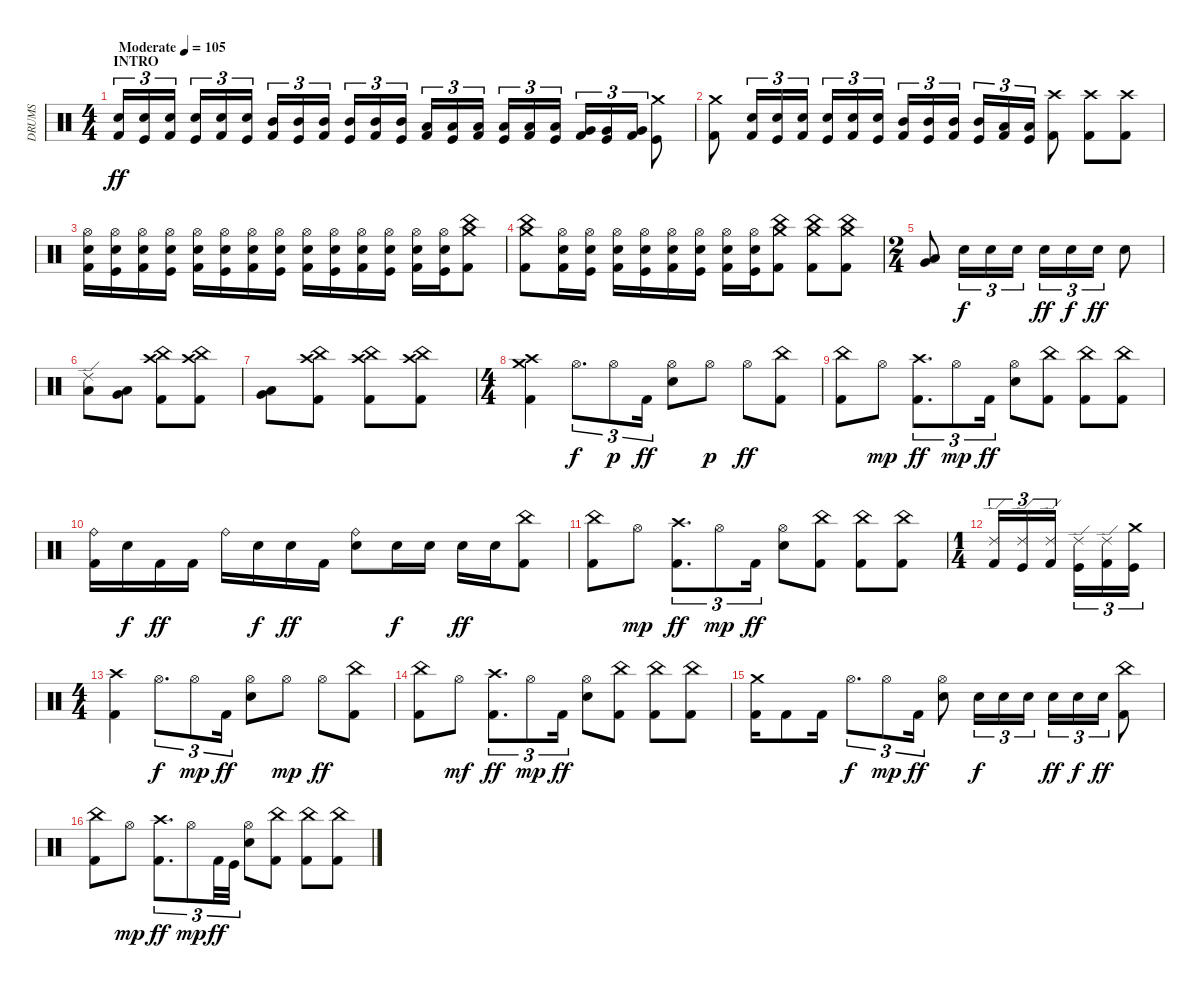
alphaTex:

\track ("DRUMS" "DRUMS") {instrument percussion}
\staff {score}
\articulation defaults
\ts (4 4)
\section ("" "INTRO")
\tempo (105 "Moderate")
\clef neutral
\ks c
("Electric Snare (hit)" "Kick (hit) 2").16{tu (3 2) dy ff} ("Snare (hit) 2" "Kick (hit)").16{tu (3 2)} ("Electric Snare (hit)" "Kick (hit) 2").16{tu (3 2) beam splitsecondary} ("Snare (hit) 2" "Kick (hit)").16{tu (3 2)} ("Electric Snare (hit)" "Kick (hit) 2").16{tu (3 2)} ("Snare (hit) 2" "Kick (hit)").16{tu (3 2)} ("Mid Tom (hit)" "Kick (hit) 2").16{tu (3 2)} ("Mid Tom (hit)" "Kick (hit)").16{tu (3 2)} ("Mid Tom (hit)" "Kick (hit) 2").16{tu (3 2) beam splitsecondary} ("Mid Tom (hit)" "Kick (hit)").16{tu (3 2)} ("Mid Tom (hit)" "Kick (hit) 2").16{tu (3 2)} ("Mid Tom (hit)" "Kick (hit)").16{tu (3 2)} ("Low Tom (hit)" "Kick (hit) 2").16{tu (3 2)} ("Low Tom (hit)" "Kick (hit)").16{tu (3 2)} ("Low Tom (hit)" "Kick (hit) 2").16{tu (3 2) beam splitsecondary} ("Low Tom (hit)" "Kick (hit)").16{tu (3 2)} ("Low Tom (hit)" "Kick (hit) 2").16{tu (3 2)} ("Low Tom (hit)" "Kick (hit)").16{tu (3 2)} ("Very Low Tom (hit)" "Kick (hit) 2").16{tu (3 2)} ("Very Low Tom (hit)" "Kick (hit)").16{tu (3 2)} ("Very Low Tom (hit)" "Kick (hit) 2").16{tu (3 2)} ("Crash medium (hit)" "Kick (hit)").8 |
("Crash medium (hit)" "Kick (hit) 2").8 ("Electric Snare (hit)" "Kick (hit) 2").16{tu (3 2)} ("Snare (hit) 2" "Kick (hit)").16{tu (3 2)} ("Electric Snare (hit)" "Kick (hit) 2").16{tu (3 2)} ("Snare (hit) 2" "Kick (hit)").16{tu (3 2)} ("Electric Snare (hit)" "Kick (hit) 2").16{tu (3 2)} ("Snare (hit) 2" "Kick (hit)").16{tu (3 2) beam splitsecondary} ("Mid Tom (hit)" "Kick (hit) 2").16{tu (3 2)} ("Mid Tom (hit)" "Kick (hit)").16{tu (3 2)} ("Mid Tom (hit)" "Kick (hit) 2").16{tu (3 2)} ("Mid Tom (hit)" "Kick (hit)").16{tu (3 2)} ("Low Tom (hit)" "Kick (hit) 2").16{tu (3 2)} ("Low Tom (hit)" "Kick (hit)").16{tu (3 2)} ("Crash high (hit)" "Kick (hit) 2").8 ("Crash high (hit)" "Kick (hit) 2").8 ("Crash high (hit)" "Kick (hit) 2").8 |
("Hi-Hat (open)" "Snare (hit) 2" "Kick (hit) 2").16 ("Hi-Hat (open)" "Snare (hit) 2" "Kick (hit)").16 ("Hi-Hat (open)" "Snare (hit) 2" "Kick (hit) 2").16 ("Hi-Hat (open)" "Snare (hit) 2" "Kick (hit)").16 ("Hi-Hat (open)" "Snare (hit) 2" "Kick (hit) 2").16 ("Hi-Hat (open)" "Snare (hit) 2" "Kick (hit)").16 ("Hi-Hat (open)" "Snare (hit) 2" "Kick (hit) 2").16 ("Hi-Hat (open)" "Snare (hit) 2" "Kick (hit)").16 ("Hi-Hat (open)" "Snare (hit) 2" "Kick (hit) 2").16 ("Hi-Hat (open)" "Snare (hit) 2" "Kick (hit)").16 ("Hi-Hat (open)" "Snare (hit) 2" "Kick (hit) 2").16 ("Hi-Hat (open)" "Snare (hit) 2" "Kick (hit)").16 ("Hi-Hat (open)" "Snare (hit) 2" "Kick (hit) 2").16 ("Hi-Hat (open)" "Snare (hit) 2" "Kick (hit)").16 ("China (hit)" "Crash medium (hit)" "Kick (hit) 2").8 |
("China (hit)" "Crash medium (hit)" "Kick (hit) 2").8 ("Hi-Hat (open)" "Snare (hit) 2" "Kick (hit) 2").16 ("Hi-Hat (open)" "Snare (hit) 2" "Kick (hit)").16 ("Hi-Hat (open)" "Snare (hit) 2" "Kick (hit) 2").16 ("Hi-Hat (open)" "Snare (hit) 2" "Kick (hit)").16 ("Hi-Hat (open)" "Snare (hit) 2" "Kick (hit) 2").16 ("Hi-Hat (open)" "Snare (hit) 2" "Kick (hit)").16 ("Hi-Hat (open)" "Snare (hit) 2" "Kick (hit) 2").16 ("Hi-Hat (open)" "Snare (hit) 2" "Kick (hit)").16 ("China (hit)" "Crash medium (hit)" "Kick (hit) 2").8 ("China (hit)" "Crash medium (hit)" "Kick (hit) 2").8 ("China (hit)" "Crash medium (hit)" "Kick (hit) 2").8 |
\ts (2 4)
("Very Low Tom (hit)" "Low Floor Tom (hit)").8 "Electric Snare (hit)".16{tu (3 2) dy f} "Snare (hit) 2".16{tu (3 2)} "Electric Snare (hit)".16{tu (3 2)} "Snare (hit) 2".16{tu (3 2) dy ff} "Electric Snare (hit)".16{tu (3 2) dy f} "Snare (hit) 2".16{tu (3 2) dy ff} "Electric Snare (hit)".8 |
("Ride (edge) 2" "Low Tom (hit)").8 ("Low Tom (hit)" "Very Low Tom (hit)").8 ("China (hit)" "Crash high (hit)" "Kick (hit) 2").8 ("China (hit)" "Crash high (hit)" "Kick (hit) 2").8 |
("Low Tom (hit)" "Very Low Tom (hit)").8 ("China (hit)" "Crash high (hit)" "Kick (hit) 2").8 ("China (hit)" "Crash high (hit)" "Kick (hit) 2").8 ("China (hit)" "Crash high (hit)" "Kick (hit) 2").8 |
\ts (4 4)
("Crash high (hit)" "Crash medium (hit)" "Kick (hit) 2").4 "Hi-Hat (open)".8{d tu (3 2) dy f} "Hi-Hat (open)".8{tu (3 2) dy p} "Kick (hit) 2".16{tu (3 2) dy ff} ("Hi-Hat (open)" "Snare (hit) 2").8 "Hi-Hat (open)".8{dy p} "Hi-Hat (open)".8{dy ff} ("China (hit)" "Kick (hit) 2").8 |
("China (hit)" "Kick (hit) 2").8 "Hi-Hat (open)".8{dy mp} ("Crash high (hit)" "Kick (hit) 2").8{d tu (3 2) dy ff} "Hi-Hat (open)".8{tu (3 2) dy mp} "Kick (hit) 2".16{tu (3 2) dy ff} ("Hi-Hat (open)" "Snare (hit) 2").8 ("China (hit)" "Kick (hit) 2").8 ("China (hit)" "Kick (hit) 2").8 ("China (hit)" "Kick (hit) 2").8 |
("Ride (bell)" "Kick (hit) 2").16 "Snare (hit) 2".16{dy f} "Kick (hit) 2".16{dy ff} "Kick (hit) 2".16 "Ride (bell)".16 "Snare (hit) 2".16{dy f} "Electric Snare (hit)".16{dy ff} "Kick (hit) 2".16 ("Ride (bell)" "Snare (hit) 2").8 "Electric Snare (hit)".16{dy f} "Snare (hit) 2".16 "Electric Snare (hit)".16{dy ff} "Snare (hit) 2".16 ("China (hit)" "Kick (hit) 2").8 |
("China (hit)" "Kick (hit) 2").8 "Hi-Hat (open)".8{dy mp} ("Crash high (hit)" "Kick (hit) 2").8{d tu (3 2) dy ff} "Hi-Hat (open)".8{tu (3 2) dy mp} "Kick (hit) 2".16{tu (3 2) dy ff} ("Hi-Hat (open)" "Snare (hit) 2").8 ("China (hit)" "Kick (hit) 2").8 ("China (hit)" "Kick (hit) 2").8 ("China (hit)" "Kick (hit) 2").8 |
\ts (1 4)
("Ride (edge) 2" "Kick (hit) 2").16{tu (3 2)} ("Ride (edge) 2" "Kick (hit)").16{tu (3 2)} ("Ride (edge) 2" "Kick (hit) 2").16{tu (3 2) beam splitsecondary} ("Ride (edge) 2" "Kick (hit)").16{tu (3 2)} ("Ride (edge) 2" "Kick (hit) 2").16{tu (3 2)} ("Crash medium (hit)" "Kick (hit)").16{tu (3 2)} |
\ts (4 4)
("Crash high (hit)" "Kick (hit) 2").4 "Hi-Hat (open)".8{d tu (3 2) dy f} "Hi-Hat (open)".8{tu (3 2) dy mp} "Kick (hit) 2".16{tu (3 2) dy ff} ("Hi-Hat (open)" "Snare (hit) 2").8 "Hi-Hat (open)".8{dy mp} "Hi-Hat (open)".8{dy ff} ("China (hit)" "Kick (hit) 2").8 |
("China (hit)" "Kick (hit) 2").8 "Hi-Hat (open)".8{dy mf} ("Crash high (hit)" "Kick (hit) 2").8{d tu (3 2) dy ff} "Hi-Hat (open)".8{tu (3 2) dy mp} "Kick (hit) 2".16{tu (3 2) dy ff} ("Hi-Hat (open)" "Snare (hit) 2").8 ("China (hit)" "Kick (hit) 2").8 ("China (hit)" "Kick (hit) 2").8 ("China (hit)" "Kick (hit) 2").8 |
("Crash medium (hit)" "Kick (hit) 2").16 "Kick (hit) 2".8 "Kick (hit) 2".16 "Hi-Hat (open)".8{d tu (3 2) dy f} "Hi-Hat (open)".8{tu (3 2) dy mp} "Kick (hit) 2".16{tu (3 2) dy ff} ("Hi-Hat (open)" "Snare (hit) 2").8 "Electric Snare (hit)".16{tu (3 2) dy f} "Snare (hit) 2".16{tu (3 2)} "Electric Snare (hit)".16{tu (3 2)} "Snare (hit) 2".16{tu (3 2) dy ff} "Electric Snare (hit)".16{tu (3 2) dy f} "Snare (hit) 2".16{tu (3 2) dy ff} ("China (hit)" "Kick (hit) 2").8 |
("China (hit)" "Kick (hit) 2").8 "Hi-Hat (open)".8{dy mp} ("Crash high (hit)" "Kick (hit) 2").8{d tu (3 2) dy ff} "Hi-Hat (open)".8{tu (3 2) dy mp} "Kick (hit) 2".32{tu (3 2) dy ff} "Kick (hit)".32{tu (3 2)} ("Hi-Hat (open)" "Snare (hit) 2").8 ("China (hit)" "Kick (hit) 2").8 ("China (hit)" "Kick (hit) 2").8 ("China (hit)" "Kick (hit) 2").8
